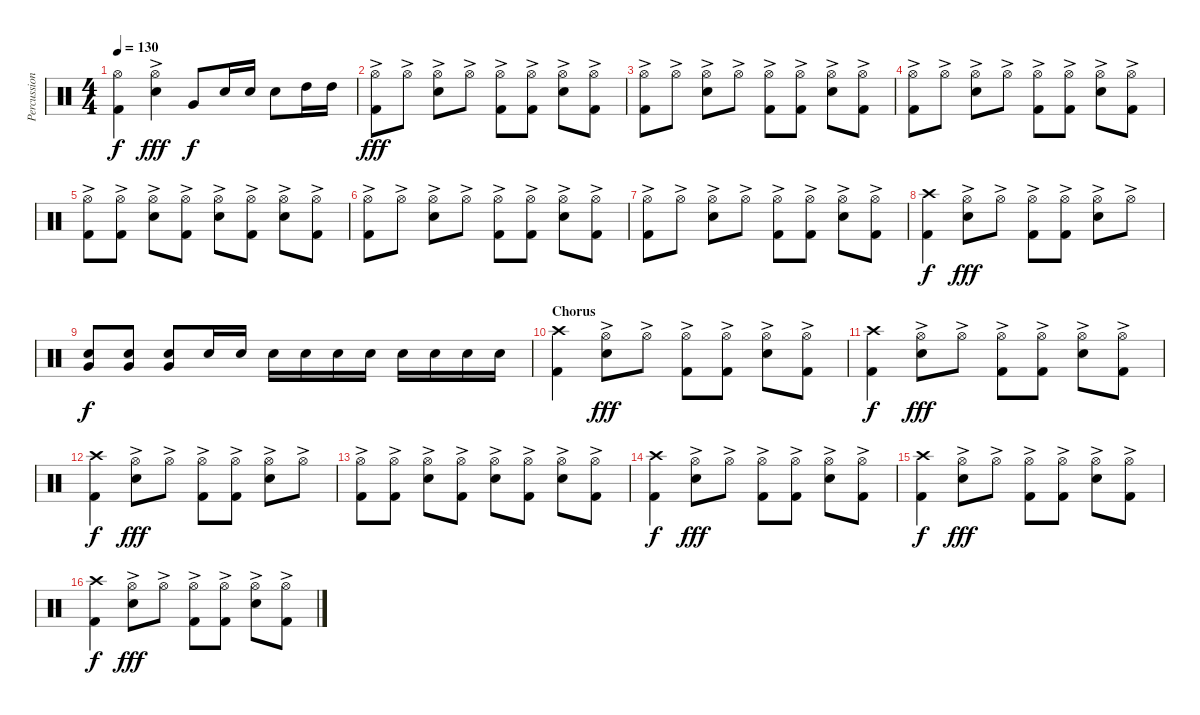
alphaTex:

\track ("Percussion" "Percussion") {instrument percussion}
\staff {score}
\articulation defaults
\ts (4 4)
\tempo 130
\clef neutral
\ks c
("Hi-Hat (open)" "Kick (hit) 2").4{dy f} ("Hi-Hat (open)"{ac} "Electric Snare (hit)").4{dy fff} "Very Low Tom (hit)".8{dy f} "Electric Snare (hit)".16 "Electric Snare (hit)".16 "Electric Snare (hit)".8 "High Tom (hit)".16 "High Tom (hit)".16 |
("Hi-Hat (open)"{ac} "Kick (hit) 2").8{dy fff} "Hi-Hat (open)"{ac}.8 ("Hi-Hat (open)"{ac} "Electric Snare (hit)").8 "Hi-Hat (open)"{ac}.8 ("Hi-Hat (open)"{ac} "Kick (hit) 2").8 ("Hi-Hat (open)"{ac} "Kick (hit) 2").8 ("Hi-Hat (open)"{ac} "Electric Snare (hit)").8 ("Hi-Hat (open)"{ac} "Kick (hit) 2").8 |
("Hi-Hat (open)"{ac} "Kick (hit) 2").8 "Hi-Hat (open)"{ac}.8 ("Hi-Hat (open)"{ac} "Electric Snare (hit)").8 "Hi-Hat (open)"{ac}.8 ("Hi-Hat (open)"{ac} "Kick (hit) 2").8 ("Hi-Hat (open)"{ac} "Kick (hit) 2").8 ("Hi-Hat (open)"{ac} "Electric Snare (hit)").8 ("Hi-Hat (open)"{ac} "Kick (hit) 2").8 |
("Hi-Hat (open)"{ac} "Kick (hit) 2").8 "Hi-Hat (open)"{ac}.8 ("Hi-Hat (open)"{ac} "Electric Snare (hit)").8 "Hi-Hat (open)"{ac}.8 ("Hi-Hat (open)"{ac} "Kick (hit) 2").8 ("Hi-Hat (open)"{ac} "Kick (hit) 2").8 ("Hi-Hat (open)"{ac} "Electric Snare (hit)").8 ("Hi-Hat (open)"{ac} "Kick (hit) 2").8 |
("Hi-Hat (open)"{ac} "Kick (hit) 2").8 ("Hi-Hat (open)"{ac} "Kick (hit) 2").8 ("Hi-Hat (open)"{ac} "Electric Snare (hit)").8 ("Hi-Hat (open)"{ac} "Kick (hit) 2").8 ("Hi-Hat (open)"{ac} "Electric Snare (hit)").8 ("Hi-Hat (open)"{ac} "Kick (hit) 2").8 ("Hi-Hat (open)"{ac} "Electric Snare (hit)").8 ("Hi-Hat (open)"{ac} "Kick (hit) 2").8 |
("Hi-Hat (open)"{ac} "Kick (hit) 2").8 "Hi-Hat (open)"{ac}.8 ("Hi-Hat (open)"{ac} "Electric Snare (hit)").8 "Hi-Hat (open)"{ac}.8 ("Hi-Hat (open)"{ac} "Kick (hit) 2").8 ("Hi-Hat (open)"{ac} "Kick (hit) 2").8 ("Hi-Hat (open)"{ac} "Electric Snare (hit)").8 ("Hi-Hat (open)"{ac} "Kick (hit) 2").8 |
("Hi-Hat (open)"{ac} "Kick (hit) 2").8 "Hi-Hat (open)"{ac}.8 ("Hi-Hat (open)"{ac} "Electric Snare (hit)").8 "Hi-Hat (open)"{ac}.8 ("Hi-Hat (open)"{ac} "Kick (hit) 2").8 ("Hi-Hat (open)"{ac} "Kick (hit) 2").8 ("Hi-Hat (open)"{ac} "Electric Snare (hit)").8 ("Hi-Hat (open)"{ac} "Kick (hit) 2").8 |
("Crash high (hit)" "Kick (hit) 2").4{dy f} ("Hi-Hat (open)"{ac} "Electric Snare (hit)").8{dy fff} "Hi-Hat (open)"{ac}.8 ("Hi-Hat (open)"{ac} "Kick (hit) 2").8 ("Hi-Hat (open)"{ac} "Kick (hit) 2").8 ("Hi-Hat (open)"{ac} "Electric Snare (hit)").8 "Hi-Hat (open)"{ac}.8 |
("Very Low Tom (hit)" "Electric Snare (hit)").8{dy f} ("Very Low Tom (hit)" "Electric Snare (hit)").8 ("Very Low Tom (hit)" "Electric Snare (hit)").8 "Electric Snare (hit)".16 "Electric Snare (hit)".16 "Electric Snare (hit)".16 "Electric Snare (hit)".16 "Electric Snare (hit)".16 "Electric Snare (hit)".16 "Electric Snare (hit)".16 "Electric Snare (hit)".16 "Electric Snare (hit)".16 "Electric Snare (hit)".16 |
\section ("" "Chorus")
("Crash high (hit)" "Kick (hit) 2").4 ("Hi-Hat (open)"{ac} "Electric Snare (hit)").8{dy fff} "Hi-Hat (open)"{ac}.8 ("Hi-Hat (open)"{ac} "Kick (hit) 2").8 ("Hi-Hat (open)"{ac} "Kick (hit) 2").8 ("Hi-Hat (open)"{ac} "Electric Snare (hit)").8 ("Hi-Hat (open)"{ac} "Kick (hit) 2").8 |
("Crash high (hit)" "Kick (hit) 2").4{dy f} ("Hi-Hat (open)"{ac} "Electric Snare (hit)").8{dy fff} "Hi-Hat (open)"{ac}.8 ("Hi-Hat (open)"{ac} "Kick (hit) 2").8 ("Hi-Hat (open)"{ac} "Kick (hit) 2").8 ("Hi-Hat (open)"{ac} "Electric Snare (hit)").8 ("Hi-Hat (open)"{ac} "Kick (hit) 2").8 |
("Crash high (hit)" "Kick (hit) 2").4{dy f} ("Hi-Hat (open)"{ac} "Electric Snare (hit)").8{dy fff} "Hi-Hat (open)"{ac}.8 ("Hi-Hat (open)"{ac} "Kick (hit) 2").8 ("Hi-Hat (open)"{ac} "Kick (hit) 2").8 ("Hi-Hat (open)"{ac} "Electric Snare (hit)").8 "Hi-Hat (open)"{ac}.8 |
("Hi-Hat (open)"{ac} "Kick (hit) 2").8 ("Hi-Hat (open)"{ac} "Kick (hit) 2").8 ("Hi-Hat (open)"{ac} "Electric Snare (hit)").8 ("Hi-Hat (open)"{ac} "Kick (hit) 2").8 ("Hi-Hat (open)"{ac} "Electric Snare (hit)").8 ("Hi-Hat (open)"{ac} "Kick (hit) 2").8 ("Hi-Hat (open)"{ac} "Electric Snare (hit)").8 ("Hi-Hat (open)"{ac} "Kick (hit) 2").8 |
("Crash high (hit)" "Kick (hit) 2").4{dy f} ("Hi-Hat (open)"{ac} "Electric Snare (hit)").8{dy fff} "Hi-Hat (open)"{ac}.8 ("Hi-Hat (open)"{ac} "Kick (hit) 2").8 ("Hi-Hat (open)"{ac} "Kick (hit) 2").8 ("Hi-Hat (open)"{ac} "Electric Snare (hit)").8 ("Hi-Hat (open)"{ac} "Kick (hit) 2").8 |
("Crash high (hit)" "Kick (hit) 2").4{dy f} ("Hi-Hat (open)"{ac} "Electric Snare (hit)").8{dy fff} "Hi-Hat (open)"{ac}.8 ("Hi-Hat (open)"{ac} "Kick (hit) 2").8 ("Hi-Hat (open)"{ac} "Kick (hit) 2").8 ("Hi-Hat (open)"{ac} "Electric Snare (hit)").8 ("Hi-Hat (open)"{ac} "Kick (hit) 2").8 |
("Crash high (hit)" "Kick (hit) 2").4{dy f} ("Hi-Hat (open)"{ac} "Electric Snare (hit)").8{dy fff} "Hi-Hat (open)"{ac}.8 ("Hi-Hat (open)"{ac} "Kick (hit) 2").8 ("Hi-Hat (open)"{ac} "Kick (hit) 2").8 ("Hi-Hat (open)"{ac} "Electric Snare (hit)").8 ("Hi-Hat (open)"{ac} "Kick (hit) 2").8
